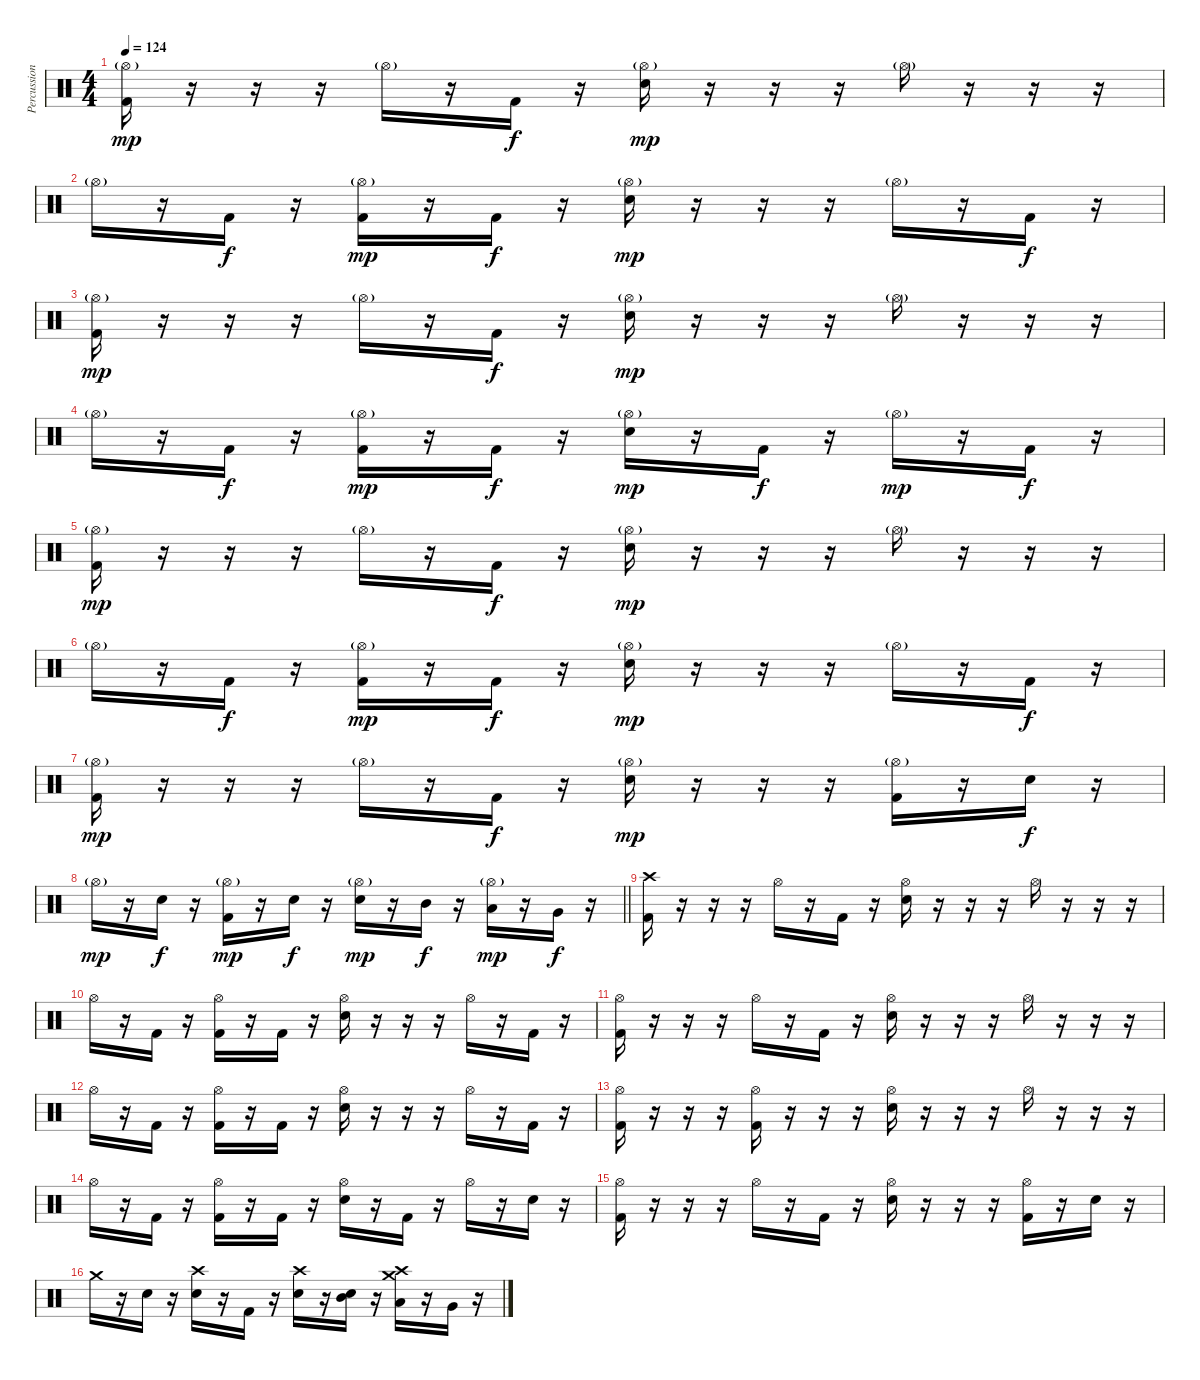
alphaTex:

\track ("Percussion" "Percussion") {instrument percussion}
\staff {score}
\articulation defaults
\ts (4 4)
\tempo 124
\clef neutral
\ks c
("Kick (hit) 2" "Hi-Hat (open)"{g}).16{dy mp} r.16 r.16 r.16 "Hi-Hat (open)"{g}.16 r.16 "Kick (hit) 2".16{dy f} r.16 ("Electric Snare (hit)" "Hi-Hat (open)"{g}).16{dy mp} r.16 r.16 r.16 "Hi-Hat (open)"{g}.16 r.16 r.16 r.16 |
"Hi-Hat (open)"{g}.16 r.16 "Kick (hit) 2".16{dy f} r.16 ("Kick (hit) 2" "Hi-Hat (open)"{g}).16{dy mp} r.16 "Kick (hit) 2".16{dy f} r.16 ("Electric Snare (hit)" "Hi-Hat (open)"{g}).16{dy mp} r.16 r.16 r.16 "Hi-Hat (open)"{g}.16 r.16 "Kick (hit) 2".16{dy f} r.16 |
("Kick (hit) 2" "Hi-Hat (open)"{g}).16{dy mp} r.16 r.16 r.16 "Hi-Hat (open)"{g}.16 r.16 "Kick (hit) 2".16{dy f} r.16 ("Electric Snare (hit)" "Hi-Hat (open)"{g}).16{dy mp} r.16 r.16 r.16 "Hi-Hat (open)"{g}.16 r.16 r.16 r.16 |
"Hi-Hat (open)"{g}.16 r.16 "Kick (hit) 2".16{dy f} r.16 ("Kick (hit) 2" "Hi-Hat (open)"{g}).16{dy mp} r.16 "Kick (hit) 2".16{dy f} r.16 ("Electric Snare (hit)" "Hi-Hat (open)"{g}).16{dy mp} r.16 "Kick (hit) 2".16{dy f} r.16 "Hi-Hat (open)"{g}.16{dy mp} r.16 "Kick (hit) 2".16{dy f} r.16 |
("Kick (hit) 2" "Hi-Hat (open)"{g}).16{dy mp} r.16 r.16 r.16 "Hi-Hat (open)"{g}.16 r.16 "Kick (hit) 2".16{dy f} r.16 ("Electric Snare (hit)" "Hi-Hat (open)"{g}).16{dy mp} r.16 r.16 r.16 "Hi-Hat (open)"{g}.16 r.16 r.16 r.16 |
"Hi-Hat (open)"{g}.16 r.16 "Kick (hit) 2".16{dy f} r.16 ("Kick (hit) 2" "Hi-Hat (open)"{g}).16{dy mp} r.16 "Kick (hit) 2".16{dy f} r.16 ("Electric Snare (hit)" "Hi-Hat (open)"{g}).16{dy mp} r.16 r.16 r.16 "Hi-Hat (open)"{g}.16 r.16 "Kick (hit) 2".16{dy f} r.16 |
("Kick (hit) 2" "Hi-Hat (open)"{g}).16{dy mp} r.16 r.16 r.16 "Hi-Hat (open)"{g}.16 r.16 "Kick (hit) 2".16{dy f} r.16 ("Electric Snare (hit)" "Hi-Hat (open)"{g}).16{dy mp} r.16 r.16 r.16 ("Kick (hit) 2" "Hi-Hat (open)"{g}).16 r.16 "Electric Snare (hit)".16{dy f} r.16 |
\barLineRight lightlight "Hi-Hat (open)"{g}.16{dy mp}
r.16 "Electric Snare (hit)".16{dy f} r.16 ("Kick (hit) 2" "Hi-Hat (open)"{g}).16{dy mp} r.16 "Electric Snare (hit)".16{dy f} r.16 ("Electric Snare (hit)" "Hi-Hat (open)"{g}).16{dy mp} r.16 "Mid Tom (hit)".16{dy f} r.16 ("Low Tom (hit)" "Hi-Hat (open)"{g}).16{dy mp} r.16 "Very Low Tom (hit)".16{dy f} r.16 |
\section ("" "")
("Kick (hit) 2" "Crash high (hit)").16 r.16 r.16 r.16 "Hi-Hat (open)".16 r.16 "Kick (hit) 2".16 r.16 ("Electric Snare (hit)" "Hi-Hat (open)").16 r.16 r.16 r.16 "Hi-Hat (open)".16 r.16 r.16 r.16 |
"Hi-Hat (open)".16 r.16 "Kick (hit) 2".16 r.16 ("Kick (hit) 2" "Hi-Hat (open)").16 r.16 "Kick (hit) 2".16 r.16 ("Electric Snare (hit)" "Hi-Hat (open)").16 r.16 r.16 r.16 "Hi-Hat (open)".16 r.16 "Kick (hit) 2".16 r.16 |
("Kick (hit) 2" "Hi-Hat (open)").16 r.16 r.16 r.16 "Hi-Hat (open)".16 r.16 "Kick (hit) 2".16 r.16 ("Electric Snare (hit)" "Hi-Hat (open)").16 r.16 r.16 r.16 "Hi-Hat (open)".16 r.16 r.16 r.16 |
"Hi-Hat (open)".16 r.16 "Kick (hit) 2".16 r.16 ("Kick (hit) 2" "Hi-Hat (open)").16 r.16 "Kick (hit) 2".16 r.16 ("Electric Snare (hit)" "Hi-Hat (open)").16 r.16 r.16 r.16 "Hi-Hat (open)".16 r.16 "Kick (hit) 2".16 r.16 |
("Kick (hit) 2" "Hi-Hat (open)").16 r.16 r.16 r.16 ("Kick (hit) 2" "Hi-Hat (open)").16 r.16 r.16 r.16 ("Electric Snare (hit)" "Hi-Hat (open)").16 r.16 r.16 r.16 "Hi-Hat (open)".16 r.16 r.16 r.16 |
"Hi-Hat (open)".16 r.16 "Kick (hit) 2".16 r.16 ("Kick (hit) 2" "Hi-Hat (open)").16 r.16 "Kick (hit) 2".16 r.16 ("Electric Snare (hit)" "Hi-Hat (open)").16 r.16 "Kick (hit) 2".16 r.16 "Hi-Hat (open)".16 r.16 "Electric Snare (hit)".16 r.16 |
("Kick (hit) 2" "Hi-Hat (open)").16 r.16 r.16 r.16 "Hi-Hat (open)".16 r.16 "Kick (hit) 2".16 r.16 ("Electric Snare (hit)" "Hi-Hat (open)").16 r.16 r.16 r.16 ("Kick (hit) 2" "Hi-Hat (open)").16 r.16 "Electric Snare (hit)".16 r.16 |
"Crash medium (hit)".16 r.16 "Electric Snare (hit)".16 r.16 ("Electric Snare (hit)" "Crash high (hit)").16 r.16 "Kick (hit) 2".16 r.16 ("Electric Snare (hit)" "Crash high (hit)").16 r.16 ("Electric Snare (hit)" "Mid Tom (hit)").16 r.16 ("Low Tom (hit)" "Crash medium (hit)" "Crash high (hit)").16 r.16 "Very Low Tom (hit)".16 r.16
